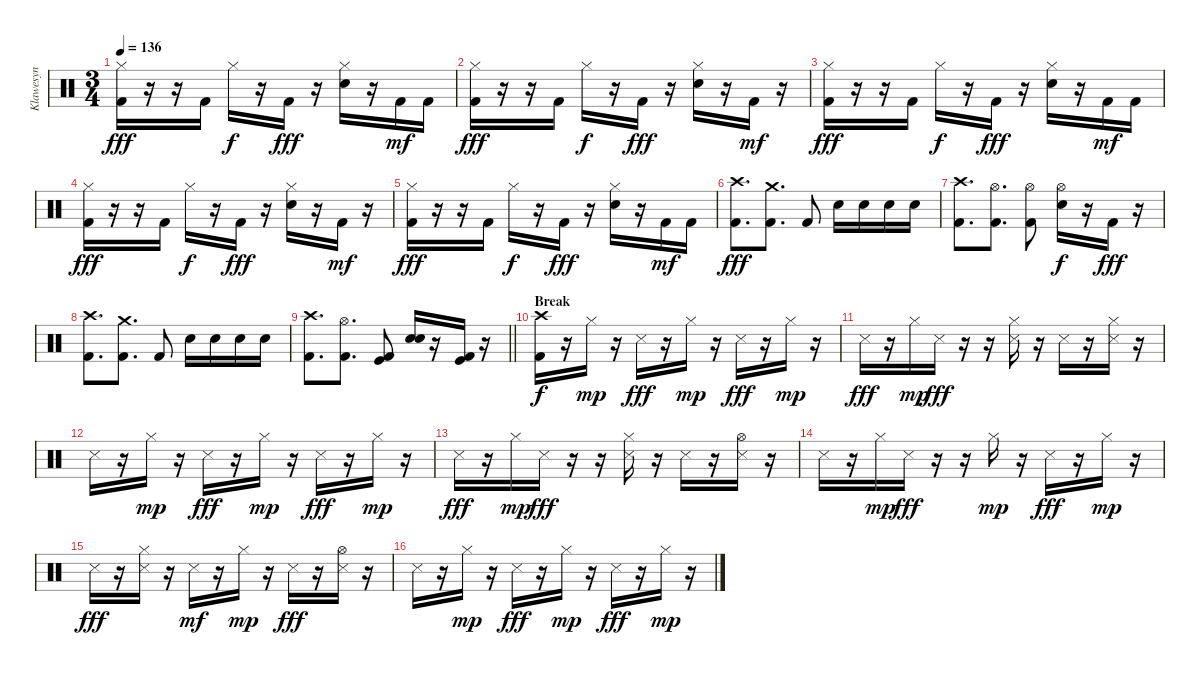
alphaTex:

\track ("Klawesyn" "Klawesyn") {instrument percussion}
\staff {score}
\articulation defaults
\ts (3 4)
\tempo 136
\clef neutral
\ks c
("Hi-Hat (closed)" "Kick (hit) 2").16{dy fff} r.16 r.16 "Kick (hit) 2".16 "Hi-Hat (closed)".16{dy f} r.16 "Kick (hit) 2".16{dy fff} r.16 ("Hi-Hat (closed)" "Snare (hit) 2").16 r.16 "Kick (hit) 2".16{dy mf} "Kick (hit) 2".16 |
("Hi-Hat (closed)" "Kick (hit) 2").16{dy fff} r.16 r.16 "Kick (hit) 2".16 "Hi-Hat (closed)".16{dy f} r.16 "Kick (hit) 2".16{dy fff} r.16 ("Hi-Hat (closed)" "Snare (hit) 2").16 r.16 "Kick (hit) 2".16{dy mf} r.16 |
("Hi-Hat (closed)" "Kick (hit) 2").16{dy fff} r.16 r.16 "Kick (hit) 2".16 "Hi-Hat (closed)".16{dy f} r.16 "Kick (hit) 2".16{dy fff} r.16 ("Hi-Hat (closed)" "Snare (hit) 2").16 r.16 "Kick (hit) 2".16{dy mf} "Kick (hit) 2".16 |
("Hi-Hat (closed)" "Kick (hit) 2").16{dy fff} r.16 r.16 "Kick (hit) 2".16 "Hi-Hat (closed)".16{dy f} r.16 "Kick (hit) 2".16{dy fff} r.16 ("Hi-Hat (closed)" "Snare (hit) 2").16 r.16 "Kick (hit) 2".16{dy mf} r.16 |
("Hi-Hat (closed)" "Kick (hit) 2").16{dy fff} r.16 r.16 "Kick (hit) 2".16 "Hi-Hat (closed)".16{dy f} r.16 "Kick (hit) 2".16{dy fff} r.16 ("Hi-Hat (closed)" "Snare (hit) 2").16 r.16 "Kick (hit) 2".16{dy mf} "Kick (hit) 2".16 |
("Crash high (hit)" "Kick (hit) 2").8{d dy fff} ("Crash medium (hit)" "Kick (hit) 2").8{d} "Kick (hit) 2".8 "Snare (hit) 2".16 "Snare (hit) 2".16 "Snare (hit) 2".16 "Snare (hit) 2".16 |
("Crash high (hit)" "Kick (hit) 2").8{d} ("Hi-Hat (open)" "Kick (hit) 2").8{d} ("Hi-Hat (open)" "Kick (hit) 2").8 ("Hi-Hat (open)" "Snare (hit) 2").16{dy f} r.16 "Kick (hit) 2".16{dy fff} r.16 |
("Crash high (hit)" "Kick (hit) 2").8{d} ("Crash medium (hit)" "Kick (hit) 2").8{d} "Kick (hit) 2".8 "Snare (hit) 2".16 "Snare (hit) 2".16 "Snare (hit) 2".16 "Snare (hit) 2".16 |
\barLineRight lightlight
("Crash high (hit)" "Kick (hit) 2").8{d} ("Hi-Hat (open)" "Kick (hit) 2").8{d} ("Kick (hit)" "Kick (hit) 2").8 ("Snare (hit) 2" "Electric Snare (hit)").16 r.16 ("Kick (hit)" "Kick (hit) 2").16 r.16 |
\section ("" "Break")
("Crash high (hit)" "Kick (hit) 2").16{dy f} r.16 "Hi-Hat (closed)".16{dy mp} r.16 "Snare (side stick) 3".16{dy fff} r.16 "Hi-Hat (closed)".16{dy mp} r.16 "Snare (side stick) 3".16{dy fff} r.16 "Hi-Hat (closed)".16{dy mp} r.16 |
"Snare (side stick) 3".16{dy fff} r.16 "Hi-Hat (closed)".16{dy mp} "Snare (side stick) 3".16{dy fff} r.16 r.16 ("Hi-Hat (closed)" "Snare (side stick) 3").16 r.16 "Snare (side stick) 3".16 r.16 ("Hi-Hat (closed)" "Snare (side stick) 3").16 r.16 |
"Snare (side stick) 3".16 r.16 "Hi-Hat (closed)".16{dy mp} r.16 "Snare (side stick) 3".16{dy fff} r.16 "Hi-Hat (closed)".16{dy mp} r.16 "Snare (side stick) 3".16{dy fff} r.16 "Hi-Hat (closed)".16{dy mp} r.16 |
"Snare (side stick) 3".16{dy fff} r.16 "Hi-Hat (closed)".16{dy mp} "Snare (side stick) 3".16{dy fff} r.16 r.16 ("Hi-Hat (closed)" "Snare (side stick) 3").16 r.16 "Snare (side stick) 3".16 r.16 ("Hi-Hat (open)" "Snare (side stick) 3").16 r.16 |
"Snare (side stick) 3".16 r.16 "Hi-Hat (closed)".16{dy mp} "Snare (side stick) 3".16{dy fff} r.16 r.16 "Hi-Hat (closed)".16{dy mp} r.16 "Snare (side stick) 3".16{dy fff} r.16 "Hi-Hat (closed)".16{dy mp} r.16 |
"Snare (side stick) 3".16{dy fff} r.16 ("Hi-Hat (closed)" "Snare (side stick) 3").16 r.16 "Snare (side stick) 3".16{dy mf} r.16 "Hi-Hat (closed)".16{dy mp} r.16 "Snare (side stick) 3".16{dy fff} r.16 ("Hi-Hat (open)" "Snare (side stick) 3").16 r.16 |
"Snare (side stick) 3".16 r.16 "Hi-Hat (closed)".16{dy mp} r.16 "Snare (side stick) 3".16{dy fff} r.16 "Hi-Hat (closed)".16{dy mp} r.16 "Snare (side stick) 3".16{dy fff} r.16 "Hi-Hat (closed)".16{dy mp} r.16
